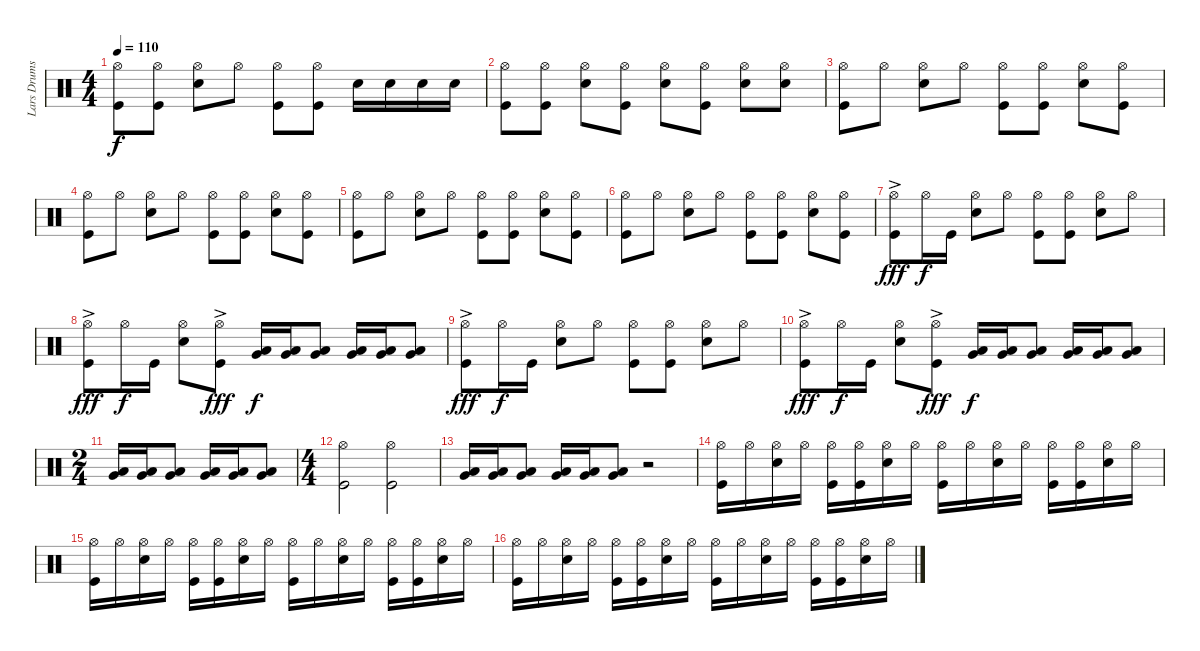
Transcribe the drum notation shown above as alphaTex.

\track ("Lars Drums" "Lars Drums") {instrument percussion}
\staff {score}
\articulation defaults
\ts (4 4)
\tempo 110
\clef neutral
\ks c
("Hi-Hat (open)" "Kick (hit)").8{dy f} ("Hi-Hat (open)" "Kick (hit)").8 ("Hi-Hat (open)" "Electric Snare (hit)").8 "Hi-Hat (open)".8 ("Hi-Hat (open)" "Kick (hit)").8 ("Hi-Hat (open)" "Kick (hit)").8 "Electric Snare (hit)".16 "Electric Snare (hit)".16 "Electric Snare (hit)".16 "Electric Snare (hit)".16 |
("Hi-Hat (open)" "Kick (hit)").8 ("Hi-Hat (open)" "Kick (hit)").8 ("Hi-Hat (open)" "Electric Snare (hit)").8 ("Hi-Hat (open)" "Kick (hit)").8 ("Hi-Hat (open)" "Electric Snare (hit)").8 ("Hi-Hat (open)" "Kick (hit)").8 ("Hi-Hat (open)" "Electric Snare (hit)").8 ("Hi-Hat (open)" "Electric Snare (hit)").8 |
("Hi-Hat (open)" "Kick (hit)").8 "Hi-Hat (open)".8 ("Hi-Hat (open)" "Electric Snare (hit)").8 "Hi-Hat (open)".8 ("Hi-Hat (open)" "Kick (hit)").8 ("Hi-Hat (open)" "Kick (hit)").8 ("Hi-Hat (open)" "Electric Snare (hit)").8 ("Hi-Hat (open)" "Kick (hit)").8 |
("Hi-Hat (open)" "Kick (hit)").8 "Hi-Hat (open)".8 ("Hi-Hat (open)" "Electric Snare (hit)").8 "Hi-Hat (open)".8 ("Hi-Hat (open)" "Kick (hit)").8 ("Hi-Hat (open)" "Kick (hit)").8 ("Hi-Hat (open)" "Electric Snare (hit)").8 ("Hi-Hat (open)" "Kick (hit)").8 |
("Hi-Hat (open)" "Kick (hit)").8 "Hi-Hat (open)".8 ("Hi-Hat (open)" "Electric Snare (hit)").8 "Hi-Hat (open)".8 ("Hi-Hat (open)" "Kick (hit)").8 ("Hi-Hat (open)" "Kick (hit)").8 ("Hi-Hat (open)" "Electric Snare (hit)").8 ("Hi-Hat (open)" "Kick (hit)").8 |
("Hi-Hat (open)" "Kick (hit)").8 "Hi-Hat (open)".8 ("Hi-Hat (open)" "Electric Snare (hit)").8 "Hi-Hat (open)".8 ("Hi-Hat (open)" "Kick (hit)").8 ("Hi-Hat (open)" "Kick (hit)").8 ("Hi-Hat (open)" "Electric Snare (hit)").8 ("Hi-Hat (open)" "Kick (hit)").8 |
("Hi-Hat (open)" "Kick (hit)"{ac}).8{dy fff} "Hi-Hat (open)".16{dy f} "Kick (hit)".16 ("Hi-Hat (open)" "Electric Snare (hit)").8 "Hi-Hat (open)".8 ("Hi-Hat (open)" "Kick (hit)").8 ("Hi-Hat (open)" "Kick (hit)").8 ("Hi-Hat (open)" "Electric Snare (hit)").8 "Hi-Hat (open)".8 |
("Hi-Hat (open)" "Kick (hit)"{ac}).8{dy fff} "Hi-Hat (open)".16{dy f} "Kick (hit)".16 ("Hi-Hat (open)" "Electric Snare (hit)").8 ("Hi-Hat (open)" "Kick (hit)"{ac}).8{dy fff} ("Low Floor Tom (hit)" "Very Low Tom (hit)").16{dy f} ("Low Floor Tom (hit)" "Very Low Tom (hit)").16 ("Low Floor Tom (hit)" "Very Low Tom (hit)").8 ("Low Floor Tom (hit)" "Very Low Tom (hit)").16 ("Low Floor Tom (hit)" "Very Low Tom (hit)").16 ("Low Floor Tom (hit)" "Very Low Tom (hit)").8 |
("Hi-Hat (open)" "Kick (hit)"{ac}).8{dy fff} "Hi-Hat (open)".16{dy f} "Kick (hit)".16 ("Hi-Hat (open)" "Electric Snare (hit)").8 "Hi-Hat (open)".8 ("Hi-Hat (open)" "Kick (hit)").8 ("Hi-Hat (open)" "Kick (hit)").8 ("Hi-Hat (open)" "Electric Snare (hit)").8 "Hi-Hat (open)".8 |
("Hi-Hat (open)" "Kick (hit)"{ac}).8{dy fff} "Hi-Hat (open)".16{dy f} "Kick (hit)".16 ("Hi-Hat (open)" "Electric Snare (hit)").8 ("Hi-Hat (open)" "Kick (hit)"{ac}).8{dy fff} ("Low Floor Tom (hit)" "Very Low Tom (hit)").16{dy f} ("Low Floor Tom (hit)" "Very Low Tom (hit)").16 ("Low Floor Tom (hit)" "Very Low Tom (hit)").8 ("Low Floor Tom (hit)" "Very Low Tom (hit)").16 ("Low Floor Tom (hit)" "Very Low Tom (hit)").16 ("Low Floor Tom (hit)" "Very Low Tom (hit)").8 |
\ts (2 4)
("Low Floor Tom (hit)" "Very Low Tom (hit)").16 ("Low Floor Tom (hit)" "Very Low Tom (hit)").16 ("Low Floor Tom (hit)" "Very Low Tom (hit)").8 ("Low Floor Tom (hit)" "Very Low Tom (hit)").16 ("Low Floor Tom (hit)" "Very Low Tom (hit)").16 ("Low Floor Tom (hit)" "Very Low Tom (hit)").8 |
\ts (4 4)
("Hi-Hat (open)" "Kick (hit)").2 ("Hi-Hat (open)" "Kick (hit)").2 |
("Low Floor Tom (hit)" "Very Low Tom (hit)").16 ("Low Floor Tom (hit)" "Very Low Tom (hit)").16 ("Low Floor Tom (hit)" "Very Low Tom (hit)").8 ("Low Floor Tom (hit)" "Very Low Tom (hit)").16 ("Low Floor Tom (hit)" "Very Low Tom (hit)").16 ("Low Floor Tom (hit)" "Very Low Tom (hit)").8 r.2 |
("Hi-Hat (open)" "Kick (hit)").16 "Hi-Hat (open)".16 ("Hi-Hat (open)" "Electric Snare (hit)").16 "Hi-Hat (open)".16 ("Hi-Hat (open)" "Kick (hit)").16 ("Hi-Hat (open)" "Kick (hit)").16 ("Hi-Hat (open)" "Electric Snare (hit)").16 "Hi-Hat (open)".16 ("Hi-Hat (open)" "Kick (hit)").16 "Hi-Hat (open)".16 ("Hi-Hat (open)" "Electric Snare (hit)").16 "Hi-Hat (open)".16 ("Hi-Hat (open)" "Kick (hit)").16 ("Hi-Hat (open)" "Kick (hit)").16 ("Hi-Hat (open)" "Electric Snare (hit)").16 "Hi-Hat (open)".16 |
("Hi-Hat (open)" "Kick (hit)").16 "Hi-Hat (open)".16 ("Hi-Hat (open)" "Electric Snare (hit)").16 "Hi-Hat (open)".16 ("Hi-Hat (open)" "Kick (hit)").16 ("Hi-Hat (open)" "Kick (hit)").16 ("Hi-Hat (open)" "Electric Snare (hit)").16 "Hi-Hat (open)".16 ("Hi-Hat (open)" "Kick (hit)").16 "Hi-Hat (open)".16 ("Hi-Hat (open)" "Electric Snare (hit)").16 "Hi-Hat (open)".16 ("Hi-Hat (open)" "Kick (hit)").16 ("Hi-Hat (open)" "Kick (hit)").16 ("Hi-Hat (open)" "Electric Snare (hit)").16 "Hi-Hat (open)".16 |
("Hi-Hat (open)" "Kick (hit)").16 "Hi-Hat (open)".16 ("Hi-Hat (open)" "Electric Snare (hit)").16 "Hi-Hat (open)".16 ("Hi-Hat (open)" "Kick (hit)").16 ("Hi-Hat (open)" "Kick (hit)").16 ("Hi-Hat (open)" "Electric Snare (hit)").16 "Hi-Hat (open)".16 ("Hi-Hat (open)" "Kick (hit)").16 "Hi-Hat (open)".16 ("Hi-Hat (open)" "Electric Snare (hit)").16 "Hi-Hat (open)".16 ("Hi-Hat (open)" "Kick (hit)").16 ("Hi-Hat (open)" "Kick (hit)").16 ("Hi-Hat (open)" "Electric Snare (hit)").16 "Hi-Hat (open)".16
